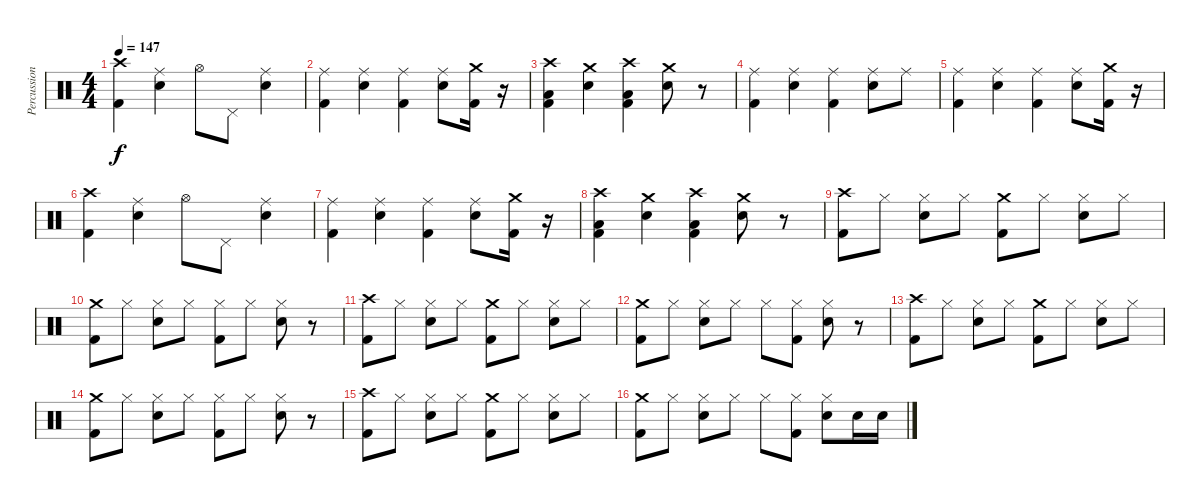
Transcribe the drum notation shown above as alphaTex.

\track ("Percussions" "Percussion") {instrument percussion}
\staff {score}
\articulation defaults
\ts (4 4)
\tempo 147
\clef neutral
\ks c
("Crash high (hit)" "Kick (hit) 2").4{dy f} ("Ride (middle)" "Electric Snare (hit)").4 "Hi-Hat (open)".8 "Pedal Hi-Hat (hit)".8 ("Ride (middle)" "Electric Snare (hit)").4 |
("Ride (middle)" "Kick (hit) 2").4 ("Ride (middle)" "Electric Snare (hit)").4 ("Ride (middle)" "Kick (hit) 2").4 ("Ride (middle)" "Electric Snare (hit)").8 ("Crash medium (hit)" "Kick (hit) 2").16 r.16 |
("Crash high (hit)" "Low Tom (hit)" "Kick (hit) 2").4 ("Crash medium (hit)" "Electric Snare (hit)").4 ("Crash high (hit)" "Low Tom (hit)" "Kick (hit) 2").4 ("Crash medium (hit)" "Electric Snare (hit)").8 r.8 |
("Ride (middle)" "Kick (hit) 2").4 ("Ride (middle)" "Electric Snare (hit)").4 ("Ride (middle)" "Kick (hit) 2").4 ("Ride (middle)" "Electric Snare (hit)").8 "Ride (middle)".8 |
("Ride (middle)" "Kick (hit) 2").4 ("Ride (middle)" "Electric Snare (hit)").4 ("Ride (middle)" "Kick (hit) 2").4 ("Ride (middle)" "Electric Snare (hit)").8 ("Crash medium (hit)" "Kick (hit) 2").16 r.16 |
("Crash high (hit)" "Kick (hit) 2").4 ("Ride (middle)" "Electric Snare (hit)").4 "Hi-Hat (open)".8 "Pedal Hi-Hat (hit)".8 ("Ride (middle)" "Electric Snare (hit)").4 |
("Ride (middle)" "Kick (hit) 2").4 ("Ride (middle)" "Electric Snare (hit)").4 ("Ride (middle)" "Kick (hit) 2").4 ("Ride (middle)" "Electric Snare (hit)").8 ("Crash medium (hit)" "Kick (hit) 2").16 r.16 |
("Crash high (hit)" "Low Tom (hit)" "Kick (hit) 2").4 ("Crash medium (hit)" "Electric Snare (hit)").4 ("Crash high (hit)" "Low Tom (hit)" "Kick (hit) 2").4 ("Crash medium (hit)" "Electric Snare (hit)").8 r.8 |
("Crash high (hit)" "Kick (hit) 2").8 "Hi-Hat (closed)".8 ("Hi-Hat (closed)" "Electric Snare (hit)").8 "Hi-Hat (closed)".8 ("Crash medium (hit)" "Kick (hit) 2").8 "Hi-Hat (closed)".8 ("Hi-Hat (closed)" "Electric Snare (hit)").8 "Hi-Hat (closed)".8 |
("Crash medium (hit)" "Kick (hit) 2").8 "Hi-Hat (closed)".8 ("Hi-Hat (closed)" "Electric Snare (hit)").8 "Hi-Hat (closed)".8 ("Hi-Hat (closed)" "Kick (hit) 2").8 "Hi-Hat (closed)".8 ("Hi-Hat (closed)" "Electric Snare (hit)").8 r.8 |
("Crash high (hit)" "Kick (hit) 2").8 "Hi-Hat (closed)".8 ("Hi-Hat (closed)" "Electric Snare (hit)").8 "Hi-Hat (closed)".8 ("Crash medium (hit)" "Kick (hit) 2").8 "Hi-Hat (closed)".8 ("Hi-Hat (closed)" "Electric Snare (hit)").8 "Hi-Hat (closed)".8 |
("Crash medium (hit)" "Kick (hit) 2").8 "Hi-Hat (closed)".8 ("Hi-Hat (closed)" "Electric Snare (hit)").8 "Hi-Hat (closed)".8 "Hi-Hat (closed)".8 ("Hi-Hat (closed)" "Kick (hit) 2").8 ("Hi-Hat (closed)" "Electric Snare (hit)").8 r.8 |
("Crash high (hit)" "Kick (hit) 2").8 "Hi-Hat (closed)".8 ("Hi-Hat (closed)" "Electric Snare (hit)").8 "Hi-Hat (closed)".8 ("Crash medium (hit)" "Kick (hit) 2").8 "Hi-Hat (closed)".8 ("Hi-Hat (closed)" "Electric Snare (hit)").8 "Hi-Hat (closed)".8 |
("Crash medium (hit)" "Kick (hit) 2").8 "Hi-Hat (closed)".8 ("Hi-Hat (closed)" "Electric Snare (hit)").8 "Hi-Hat (closed)".8 ("Hi-Hat (closed)" "Kick (hit) 2").8 "Hi-Hat (closed)".8 ("Hi-Hat (closed)" "Electric Snare (hit)").8 r.8 |
("Crash high (hit)" "Kick (hit) 2").8 "Hi-Hat (closed)".8 ("Hi-Hat (closed)" "Electric Snare (hit)").8 "Hi-Hat (closed)".8 ("Crash medium (hit)" "Kick (hit) 2").8 "Hi-Hat (closed)".8 ("Hi-Hat (closed)" "Electric Snare (hit)").8 "Hi-Hat (closed)".8 |
("Crash medium (hit)" "Kick (hit) 2").8 "Hi-Hat (closed)".8 ("Hi-Hat (closed)" "Electric Snare (hit)").8 "Hi-Hat (closed)".8 "Hi-Hat (closed)".8 ("Hi-Hat (closed)" "Kick (hit) 2").8 ("Hi-Hat (closed)" "Electric Snare (hit)").8 "Electric Snare (hit)".16 "Electric Snare (hit)".16
